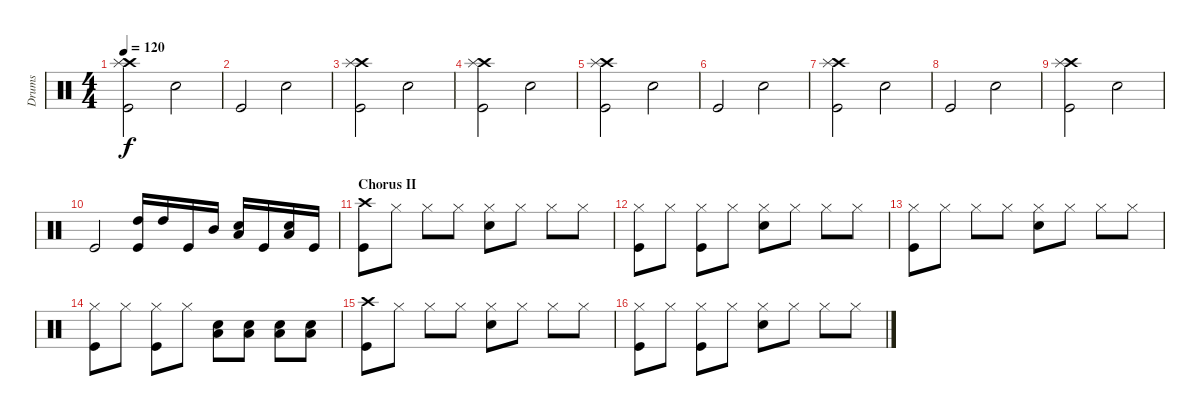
\track ("Drums" "Drums") {instrument percussion}
\staff {score}
\articulation defaults
\ts (4 4)
\tempo 120
\clef neutral
\ks c
("Crash high (hit)" "Splash (hit)" "Kick (hit)").2{dy f} "Snare (hit) 2".2 |
"Kick (hit)".2 "Snare (hit) 2".2 |
("Crash high (hit)" "Splash (hit)" "Kick (hit)").2 "Snare (hit) 2".2 |
("Crash high (hit)" "Splash (hit)" "Kick (hit)").2 "Snare (hit) 2".2 |
("Crash high (hit)" "Splash (hit)" "Kick (hit)").2 "Snare (hit) 2".2 |
"Kick (hit)".2 "Snare (hit) 2".2 |
("Crash high (hit)" "Splash (hit)" "Kick (hit)").2 "Snare (hit) 2".2 |
"Kick (hit)".2 "Snare (hit) 2".2 |
("Crash high (hit)" "Splash (hit)" "Kick (hit)").2 "Snare (hit) 2".2 |
"Kick (hit)".2 ("High Tom (hit)" "Kick (hit)").16 "High Tom (hit)".16 "Kick (hit)".16 "Mid Tom (hit)".16 ("Low Tom (hit)" "Snare (hit) 2").16 "Kick (hit)".16 ("Low Tom (hit)" "Snare (hit) 2").16 "Kick (hit)".16 |
\section ("" "Chorus II")
("Crash high (hit)" "Kick (hit)").8 "Hi-Hat (closed)".8 "Hi-Hat (closed)".8 "Hi-Hat (closed)".8 ("Hi-Hat (closed)" "Snare (hit) 2").8 "Hi-Hat (closed)".8 "Hi-Hat (closed)".8 "Hi-Hat (closed)".8 |
("Hi-Hat (closed)" "Kick (hit)").8 "Hi-Hat (closed)".8 ("Hi-Hat (closed)" "Kick (hit)").8 "Hi-Hat (closed)".8 ("Hi-Hat (closed)" "Snare (hit) 2").8 "Hi-Hat (closed)".8 "Hi-Hat (closed)".8 "Hi-Hat (closed)".8 |
("Hi-Hat (closed)" "Kick (hit)").8 "Hi-Hat (closed)".8 "Hi-Hat (closed)".8 "Hi-Hat (closed)".8 ("Hi-Hat (closed)" "Snare (hit) 2").8 "Hi-Hat (closed)".8 "Hi-Hat (closed)".8 "Hi-Hat (closed)".8 |
("Hi-Hat (closed)" "Kick (hit)").8 "Hi-Hat (closed)".8 ("Hi-Hat (closed)" "Kick (hit)").8 "Hi-Hat (closed)".8 ("Low Tom (hit)" "Snare (hit) 2").8 ("Low Tom (hit)" "Snare (hit) 2").8 ("Low Tom (hit)" "Snare (hit) 2").8 ("Low Tom (hit)" "Snare (hit) 2").8 |
("Crash high (hit)" "Kick (hit)").8 "Hi-Hat (closed)".8 "Hi-Hat (closed)".8 "Hi-Hat (closed)".8 ("Hi-Hat (closed)" "Snare (hit) 2").8 "Hi-Hat (closed)".8 "Hi-Hat (closed)".8 "Hi-Hat (closed)".8 |
("Hi-Hat (closed)" "Kick (hit)").8 "Hi-Hat (closed)".8 ("Hi-Hat (closed)" "Kick (hit)").8 "Hi-Hat (closed)".8 ("Hi-Hat (closed)" "Snare (hit) 2").8 "Hi-Hat (closed)".8 "Hi-Hat (closed)".8 "Hi-Hat (closed)".8
